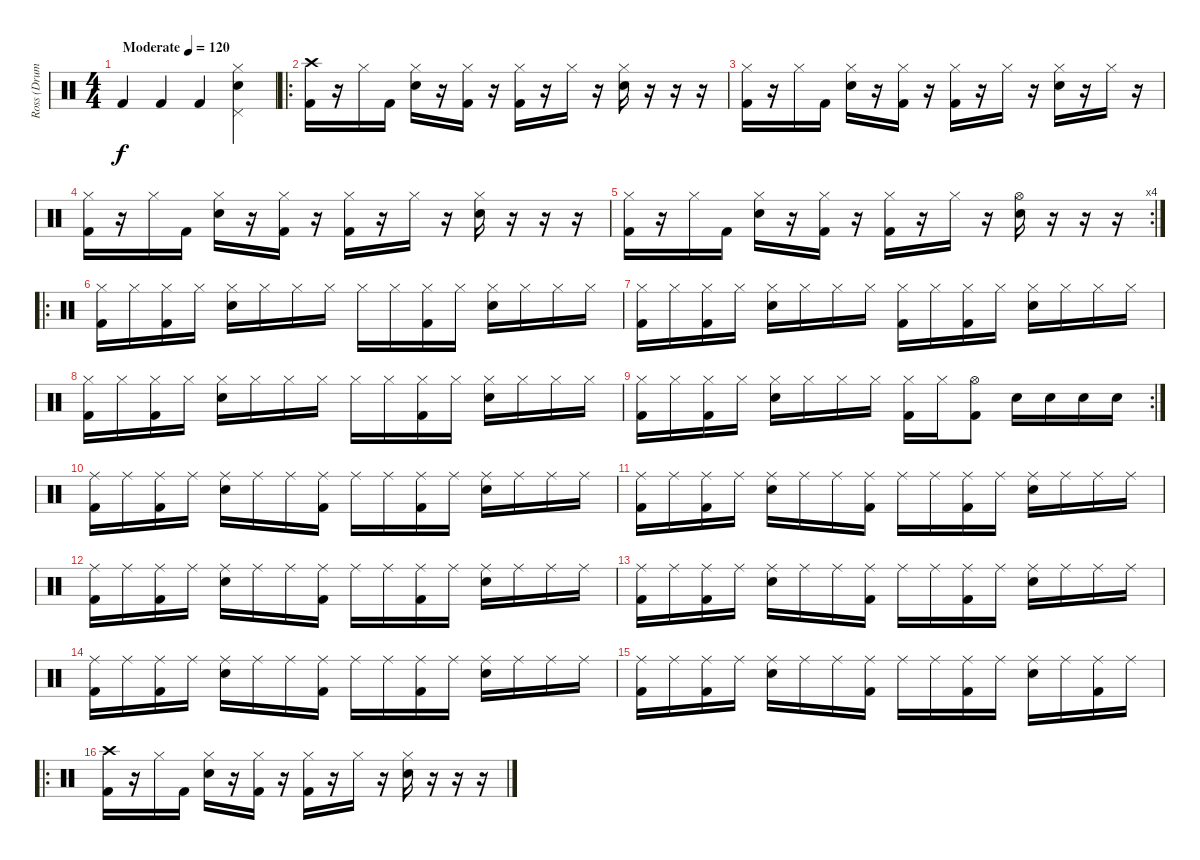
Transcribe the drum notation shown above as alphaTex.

\track ("Ross (Drums)" "Ross (Drum") {instrument percussion}
\staff {score}
\articulation defaults
\ts (4 4)
\tempo (120 "Moderate")
\clef neutral
\ks c "Kick (hit) 2".4{dy f} "Kick (hit) 2".4 "Kick (hit) 2".4
("Hi-Hat (closed)" "Pedal Hi-Hat (hit)" "Electric Snare (hit)").4 |
\ro
("Crash high (hit)" "Kick (hit) 2").16 r.16 "Hi-Hat (closed)".16 "Kick (hit) 2".16 ("Hi-Hat (closed)" "Electric Snare (hit)").16 r.16 ("Hi-Hat (closed)" "Kick (hit) 2").16 r.16 ("Hi-Hat (closed)" "Kick (hit) 2").16 r.16 "Hi-Hat (closed)".16 r.16 ("Hi-Hat (closed)" "Electric Snare (hit)").16 r.16 r.16 r.16 |
("Hi-Hat (closed)" "Kick (hit) 2").16 r.16 "Hi-Hat (closed)".16 "Kick (hit) 2".16 ("Hi-Hat (closed)" "Electric Snare (hit)").16 r.16 ("Hi-Hat (closed)" "Kick (hit) 2").16 r.16 ("Hi-Hat (closed)" "Kick (hit) 2").16 r.16 "Hi-Hat (closed)".16 r.16 ("Hi-Hat (closed)" "Electric Snare (hit)").16 r.16 "Hi-Hat (closed)".16 r.16 |
("Hi-Hat (closed)" "Kick (hit) 2").16 r.16 "Hi-Hat (closed)".16 "Kick (hit) 2".16 ("Hi-Hat (closed)" "Electric Snare (hit)").16 r.16 ("Hi-Hat (closed)" "Kick (hit) 2").16 r.16 ("Hi-Hat (closed)" "Kick (hit) 2").16 r.16 "Hi-Hat (closed)".16 r.16 ("Hi-Hat (closed)" "Electric Snare (hit)").16 r.16 r.16 r.16 |
\rc 4
("Hi-Hat (closed)" "Kick (hit) 2").16 r.16 "Hi-Hat (closed)".16 "Kick (hit) 2".16 ("Hi-Hat (closed)" "Electric Snare (hit)").16 r.16 ("Hi-Hat (closed)" "Kick (hit) 2").16 r.16 ("Hi-Hat (closed)" "Kick (hit) 2").16 r.16 "Hi-Hat (closed)".16 r.16 ("Hi-Hat (open)" "Electric Snare (hit)").16 r.16 r.16 r.16 |
\ro
("Hi-Hat (closed)" "Kick (hit) 2").16 "Hi-Hat (closed)".16 ("Hi-Hat (closed)" "Kick (hit) 2").16 "Hi-Hat (closed)".16 ("Hi-Hat (closed)" "Electric Snare (hit)").16 "Hi-Hat (closed)".16 "Hi-Hat (closed)".16 "Hi-Hat (closed)".16 "Hi-Hat (closed)".16 "Hi-Hat (closed)".16 ("Hi-Hat (closed)" "Kick (hit) 2").16 "Hi-Hat (closed)".16 ("Hi-Hat (closed)" "Electric Snare (hit)").16 "Hi-Hat (closed)".16 "Hi-Hat (closed)".16 "Hi-Hat (closed)".16 |
("Hi-Hat (closed)" "Kick (hit) 2").16 "Hi-Hat (closed)".16 ("Hi-Hat (closed)" "Kick (hit) 2").16 "Hi-Hat (closed)".16 ("Hi-Hat (closed)" "Electric Snare (hit)").16 "Hi-Hat (closed)".16 "Hi-Hat (closed)".16 "Hi-Hat (closed)".16 ("Hi-Hat (closed)" "Kick (hit) 2").16 "Hi-Hat (closed)".16 ("Hi-Hat (closed)" "Kick (hit) 2").16 "Hi-Hat (closed)".16 ("Hi-Hat (closed)" "Electric Snare (hit)").16 "Hi-Hat (closed)".16 "Hi-Hat (closed)".16 "Hi-Hat (closed)".16 |
("Hi-Hat (closed)" "Kick (hit) 2").16 "Hi-Hat (closed)".16 ("Hi-Hat (closed)" "Kick (hit) 2").16 "Hi-Hat (closed)".16 ("Hi-Hat (closed)" "Electric Snare (hit)").16 "Hi-Hat (closed)".16 "Hi-Hat (closed)".16 "Hi-Hat (closed)".16 "Hi-Hat (closed)".16 "Hi-Hat (closed)".16 ("Hi-Hat (closed)" "Kick (hit) 2").16 "Hi-Hat (closed)".16 ("Hi-Hat (closed)" "Electric Snare (hit)").16 "Hi-Hat (closed)".16 "Hi-Hat (closed)".16 "Hi-Hat (closed)".16 |
\rc 2
("Hi-Hat (closed)" "Kick (hit) 2").16 "Hi-Hat (closed)".16 ("Hi-Hat (closed)" "Kick (hit) 2").16 "Hi-Hat (closed)".16 ("Hi-Hat (closed)" "Electric Snare (hit)").16 "Hi-Hat (closed)".16 "Hi-Hat (closed)".16 "Hi-Hat (closed)".16 ("Hi-Hat (closed)" "Kick (hit) 2").16 "Hi-Hat (closed)".16 ("Hi-Hat (open)" "Kick (hit) 2").8 "Electric Snare (hit)".16 "Electric Snare (hit)".16 "Electric Snare (hit)".16 "Electric Snare (hit)".16 |
("Ride (middle)" "Kick (hit) 2").16 "Ride (middle)".16 ("Ride (middle)" "Kick (hit) 2").16 "Ride (middle)".16 ("Ride (middle)" "Electric Snare (hit)").16 "Ride (middle)".16 "Ride (middle)".16 ("Ride (middle)" "Kick (hit) 2").16 "Ride (middle)".16 "Ride (middle)".16 ("Ride (middle)" "Kick (hit) 2").16 "Ride (middle)".16 ("Ride (middle)" "Electric Snare (hit)").16 "Ride (middle)".16 "Ride (middle)".16 "Ride (middle)".16 |
("Ride (middle)" "Kick (hit) 2").16 "Ride (middle)".16 ("Ride (middle)" "Kick (hit) 2").16 "Ride (middle)".16 ("Ride (middle)" "Electric Snare (hit)").16 "Ride (middle)".16 "Ride (middle)".16 ("Ride (middle)" "Kick (hit) 2").16 "Ride (middle)".16 "Ride (middle)".16 ("Ride (middle)" "Kick (hit) 2").16 "Ride (middle)".16 ("Ride (middle)" "Electric Snare (hit)").16 "Ride (middle)".16 "Ride (middle)".16 "Ride (middle)".16 |
("Ride (middle)" "Kick (hit) 2").16 "Ride (middle)".16 ("Ride (middle)" "Kick (hit) 2").16 "Ride (middle)".16 ("Ride (middle)" "Electric Snare (hit)").16 "Ride (middle)".16 "Ride (middle)".16 ("Ride (middle)" "Kick (hit) 2").16 "Ride (middle)".16 "Ride (middle)".16 ("Ride (middle)" "Kick (hit) 2").16 "Ride (middle)".16 ("Ride (middle)" "Electric Snare (hit)").16 "Ride (middle)".16 "Ride (middle)".16 "Ride (middle)".16 |
("Ride (middle)" "Kick (hit) 2").16 "Ride (middle)".16 ("Ride (middle)" "Kick (hit) 2").16 "Ride (middle)".16 ("Ride (middle)" "Electric Snare (hit)").16 "Ride (middle)".16 "Ride (middle)".16 ("Ride (middle)" "Kick (hit) 2").16 "Ride (middle)".16 "Ride (middle)".16 ("Ride (middle)" "Kick (hit) 2").16 "Ride (middle)".16 ("Ride (middle)" "Electric Snare (hit)").16 "Ride (middle)".16 "Ride (middle)".16 "Ride (middle)".16 |
("Ride (middle)" "Kick (hit) 2").16 "Ride (middle)".16 ("Ride (middle)" "Kick (hit) 2").16 "Ride (middle)".16 ("Ride (middle)" "Electric Snare (hit)").16 "Ride (middle)".16 "Ride (middle)".16 ("Ride (middle)" "Kick (hit) 2").16 "Ride (middle)".16 "Ride (middle)".16 ("Ride (middle)" "Kick (hit) 2").16 "Ride (middle)".16 ("Ride (middle)" "Electric Snare (hit)").16 "Ride (middle)".16 "Ride (middle)".16 "Ride (middle)".16 |
("Ride (middle)" "Kick (hit) 2").16 "Ride (middle)".16 ("Ride (middle)" "Kick (hit) 2").16 "Ride (middle)".16 ("Ride (middle)" "Electric Snare (hit)").16 "Ride (middle)".16 "Ride (middle)".16 ("Ride (middle)" "Kick (hit) 2").16 "Ride (middle)".16 "Ride (middle)".16 ("Ride (middle)" "Kick (hit) 2").16 "Ride (middle)".16 ("Ride (middle)" "Electric Snare (hit)").16 "Ride (middle)".16 ("Ride (middle)" "Kick (hit) 2").16 "Ride (middle)".16 |
\ro
("Crash high (hit)" "Kick (hit) 2").16 r.16 "Hi-Hat (closed)".16 "Kick (hit) 2".16 ("Hi-Hat (closed)" "Electric Snare (hit)").16 r.16 ("Hi-Hat (closed)" "Kick (hit) 2").16 r.16 ("Hi-Hat (closed)" "Kick (hit) 2").16 r.16 "Hi-Hat (closed)".16 r.16 ("Hi-Hat (closed)" "Electric Snare (hit)").16 r.16 r.16 r.16
